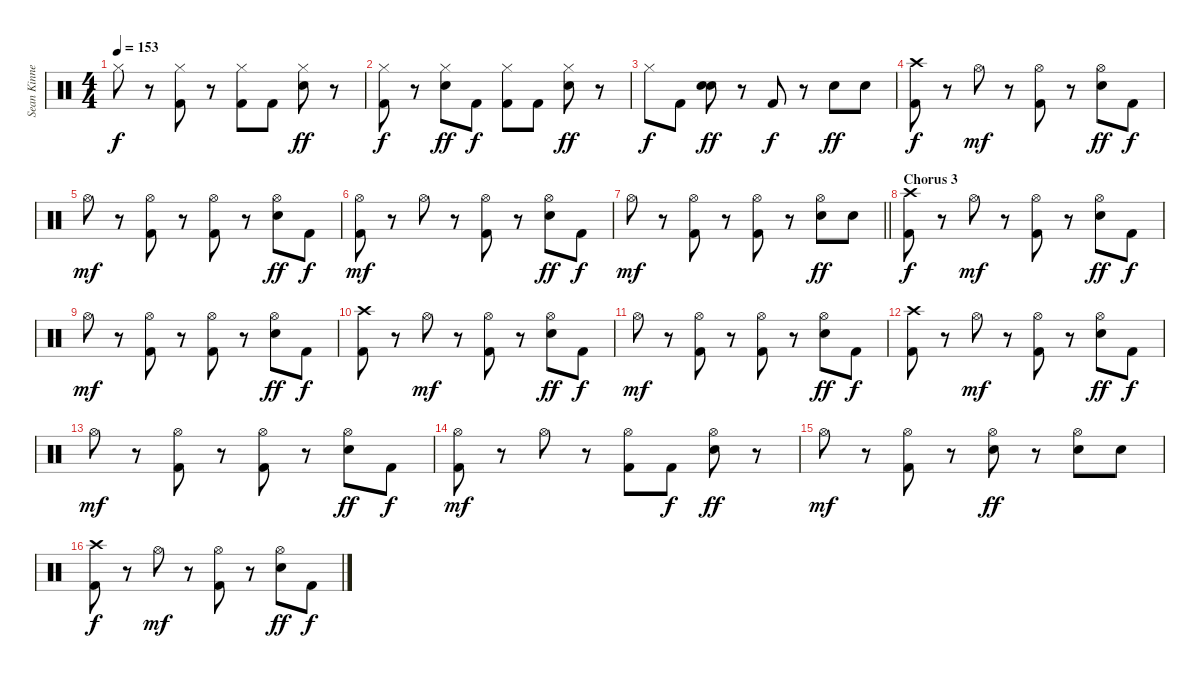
\track ("Sean Kinney - Drums" "Sean Kinne") {instrument percussion}
\staff {score}
\articulation defaults
\ts (4 4)
\tempo 153
\clef neutral
\ks c "Hi-Hat (closed)".8{dy f}
r.8 ("Hi-Hat (closed)" "Kick (hit) 2").8 r.8 ("Hi-Hat (closed)" "Kick (hit) 2").8 "Kick (hit) 2".8 ("Hi-Hat (closed)" "Snare (hit) 2").8{dy ff} r.8 |
("Hi-Hat (closed)" "Kick (hit) 2").8{dy f} r.8 ("Hi-Hat (closed)" "Snare (hit) 2").8{dy ff} "Kick (hit) 2".8{dy f} ("Hi-Hat (closed)" "Kick (hit) 2").8 "Kick (hit) 2".8 ("Hi-Hat (closed)" "Snare (hit) 2").8{dy ff} r.8 |
"Hi-Hat (closed)".8{dy f} "Kick (hit) 2".8 ("Snare (hit) 2" "Snare (hit) 2").8{dy ff} r.8 "Kick (hit) 2".8{dy f} r.8 "Snare (hit) 2".8{dy ff} "Snare (hit) 2".8 |
("Crash high (hit)" "Kick (hit) 2").8{dy f} r.8 "Hi-Hat (open)".8{dy mf} r.8 ("Hi-Hat (open)" "Kick (hit) 2").8 r.8 ("Hi-Hat (open)" "Snare (hit) 2").8{dy ff} "Kick (hit) 2".8{dy f} |
"Hi-Hat (open)".8{dy mf} r.8 ("Hi-Hat (open)" "Kick (hit) 2").8 r.8 ("Hi-Hat (open)" "Kick (hit) 2").8 r.8 ("Hi-Hat (open)" "Snare (hit) 2").8{dy ff} "Kick (hit) 2".8{dy f} |
("Hi-Hat (open)" "Kick (hit) 2").8{dy mf} r.8 "Hi-Hat (open)".8 r.8 ("Hi-Hat (open)" "Kick (hit) 2").8 r.8 ("Hi-Hat (open)" "Snare (hit) 2").8{dy ff} "Kick (hit) 2".8{dy f} |
\barLineRight lightlight "Hi-Hat (open)".8{dy mf}
r.8 ("Hi-Hat (open)" "Kick (hit) 2").8 r.8 ("Hi-Hat (open)" "Kick (hit) 2").8 r.8 ("Hi-Hat (open)" "Snare (hit) 2").8{dy ff} "Snare (hit) 2".8 |
\section ("" "Chorus 3")
("Crash high (hit)" "Kick (hit) 2").8{dy f} r.8 "Hi-Hat (open)".8{dy mf} r.8 ("Hi-Hat (open)" "Kick (hit) 2").8 r.8 ("Hi-Hat (open)" "Snare (hit) 2").8{dy ff} "Kick (hit) 2".8{dy f} |
"Hi-Hat (open)".8{dy mf} r.8 ("Hi-Hat (open)" "Kick (hit) 2").8 r.8 ("Hi-Hat (open)" "Kick (hit) 2").8 r.8 ("Hi-Hat (open)" "Snare (hit) 2").8{dy ff} "Kick (hit) 2".8{dy f} |
("Crash high (hit)" "Kick (hit) 2").8 r.8 "Hi-Hat (open)".8{dy mf} r.8 ("Hi-Hat (open)" "Kick (hit) 2").8 r.8 ("Hi-Hat (open)" "Snare (hit) 2").8{dy ff} "Kick (hit) 2".8{dy f} |
"Hi-Hat (open)".8{dy mf} r.8 ("Hi-Hat (open)" "Kick (hit) 2").8 r.8 ("Hi-Hat (open)" "Kick (hit) 2").8 r.8 ("Hi-Hat (open)" "Snare (hit) 2").8{dy ff} "Kick (hit) 2".8{dy f} |
("Crash high (hit)" "Kick (hit) 2").8 r.8 "Hi-Hat (open)".8{dy mf} r.8 ("Hi-Hat (open)" "Kick (hit) 2").8 r.8 ("Hi-Hat (open)" "Snare (hit) 2").8{dy ff} "Kick (hit) 2".8{dy f} |
"Hi-Hat (open)".8{dy mf} r.8 ("Hi-Hat (open)" "Kick (hit) 2").8 r.8 ("Hi-Hat (open)" "Kick (hit) 2").8 r.8 ("Hi-Hat (open)" "Snare (hit) 2").8{dy ff} "Kick (hit) 2".8{dy f} |
("Hi-Hat (open)" "Kick (hit) 2").8{dy mf} r.8 "Hi-Hat (open)".8 r.8 ("Hi-Hat (open)" "Kick (hit) 2").8 "Kick (hit) 2".8{dy f} ("Hi-Hat (open)" "Snare (hit) 2").8{dy ff} r.8 |
"Hi-Hat (open)".8{dy mf} r.8 ("Hi-Hat (open)" "Kick (hit) 2").8 r.8 ("Hi-Hat (open)" "Snare (hit) 2").8{dy ff} r.8 ("Hi-Hat (open)" "Snare (hit) 2").8 "Snare (hit) 2".8 |
("Crash high (hit)" "Kick (hit) 2").8{dy f} r.8 "Hi-Hat (open)".8{dy mf} r.8 ("Hi-Hat (open)" "Kick (hit) 2").8 r.8 ("Hi-Hat (open)" "Snare (hit) 2").8{dy ff} "Kick (hit) 2".8{dy f}
